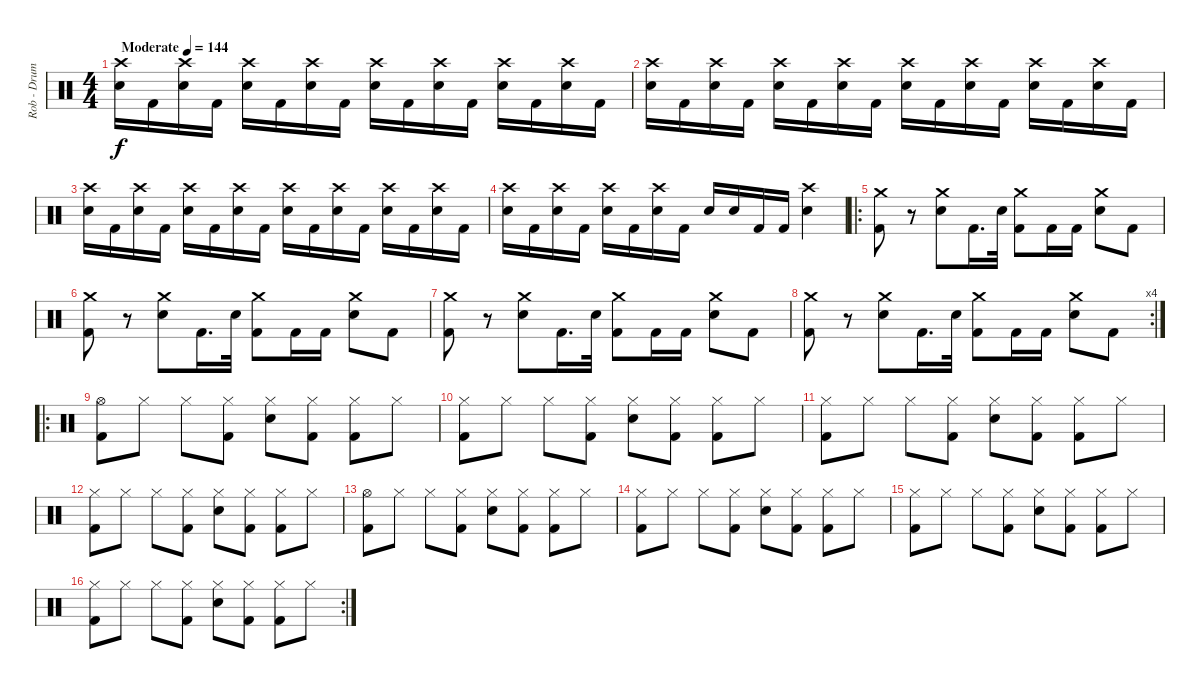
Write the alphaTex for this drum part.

\track ("Rob - Drums" "Rob - Drum") {instrument percussion}
\staff {score}
\articulation defaults
\ts (4 4)
\tempo (144 "Moderate")
\clef neutral
\ks c
("Crash high (hit)" "Electric Snare (hit)").16{dy f} "Kick (hit) 2".16 ("Crash high (hit)" "Electric Snare (hit)").16 "Kick (hit) 2".16 ("Crash high (hit)" "Electric Snare (hit)").16 "Kick (hit) 2".16 ("Crash high (hit)" "Electric Snare (hit)").16 "Kick (hit) 2".16 ("Crash high (hit)" "Electric Snare (hit)").16 "Kick (hit) 2".16 ("Crash high (hit)" "Electric Snare (hit)").16 "Kick (hit) 2".16 ("Crash high (hit)" "Electric Snare (hit)").16 "Kick (hit) 2".16 ("Crash high (hit)" "Electric Snare (hit)").16 "Kick (hit) 2".16 |
("Crash high (hit)" "Electric Snare (hit)").16 "Kick (hit) 2".16 ("Crash high (hit)" "Electric Snare (hit)").16 "Kick (hit) 2".16 ("Crash high (hit)" "Electric Snare (hit)").16 "Kick (hit) 2".16 ("Crash high (hit)" "Electric Snare (hit)").16 "Kick (hit) 2".16 ("Crash high (hit)" "Electric Snare (hit)").16 "Kick (hit) 2".16 ("Crash high (hit)" "Electric Snare (hit)").16 "Kick (hit) 2".16 ("Crash high (hit)" "Electric Snare (hit)").16 "Kick (hit) 2".16 ("Crash high (hit)" "Electric Snare (hit)").16 "Kick (hit) 2".16 |
("Crash high (hit)" "Electric Snare (hit)").16 "Kick (hit) 2".16 ("Crash high (hit)" "Electric Snare (hit)").16 "Kick (hit) 2".16 ("Crash high (hit)" "Electric Snare (hit)").16 "Kick (hit) 2".16 ("Crash high (hit)" "Electric Snare (hit)").16 "Kick (hit) 2".16 ("Crash high (hit)" "Electric Snare (hit)").16 "Kick (hit) 2".16 ("Crash high (hit)" "Electric Snare (hit)").16 "Kick (hit) 2".16 ("Crash high (hit)" "Electric Snare (hit)").16 "Kick (hit) 2".16 ("Crash high (hit)" "Electric Snare (hit)").16 "Kick (hit) 2".16 |
("Crash high (hit)" "Electric Snare (hit)").16 "Kick (hit) 2".16 ("Crash high (hit)" "Electric Snare (hit)").16 "Kick (hit) 2".16 ("Crash high (hit)" "Electric Snare (hit)").16 "Kick (hit) 2".16 ("Crash high (hit)" "Electric Snare (hit)").16 "Kick (hit) 2".16 "Electric Snare (hit)".16 "Electric Snare (hit)".16 "Kick (hit) 2".16 "Kick (hit) 2".16 ("Crash high (hit)" "Electric Snare (hit)").4 |
\ro
("Crash medium (hit)" "Kick (hit) 2").8 r.8 ("Crash medium (hit)" "Electric Snare (hit)").8 "Kick (hit) 2".16{d} "Electric Snare (hit)".32 ("Crash medium (hit)" "Kick (hit) 2").8 "Kick (hit) 2".16 "Kick (hit) 2".16 ("Crash medium (hit)" "Electric Snare (hit)").8 "Kick (hit) 2".8 |
("Crash medium (hit)" "Kick (hit) 2").8 r.8 ("Crash medium (hit)" "Electric Snare (hit)").8 "Kick (hit) 2".16{d} "Electric Snare (hit)".32 ("Crash medium (hit)" "Kick (hit) 2").8 "Kick (hit) 2".16 "Kick (hit) 2".16 ("Crash medium (hit)" "Electric Snare (hit)").8 "Kick (hit) 2".8 |
("Crash medium (hit)" "Kick (hit) 2").8 r.8 ("Crash medium (hit)" "Electric Snare (hit)").8 "Kick (hit) 2".16{d} "Electric Snare (hit)".32 ("Crash medium (hit)" "Kick (hit) 2").8 "Kick (hit) 2".16 "Kick (hit) 2".16 ("Crash medium (hit)" "Electric Snare (hit)").8 "Kick (hit) 2".8 |
\rc 4
("Crash medium (hit)" "Kick (hit) 2").8 r.8 ("Crash medium (hit)" "Electric Snare (hit)").8 "Kick (hit) 2".16{d} "Electric Snare (hit)".32 ("Crash medium (hit)" "Kick (hit) 2").8 "Kick (hit) 2".16 "Kick (hit) 2".16 ("Crash medium (hit)" "Electric Snare (hit)").8 "Kick (hit) 2".8 |
\ro
("Hi-Hat (open)" "Kick (hit) 2").8 "Hi-Hat (closed)".8 "Hi-Hat (closed)".8 ("Hi-Hat (closed)" "Kick (hit) 2").8 ("Hi-Hat (closed)" "Electric Snare (hit)").8 ("Hi-Hat (closed)" "Kick (hit) 2").8 ("Hi-Hat (closed)" "Kick (hit) 2").8 "Hi-Hat (closed)".8 |
("Hi-Hat (closed)" "Kick (hit) 2").8 "Hi-Hat (closed)".8 "Hi-Hat (closed)".8 ("Hi-Hat (closed)" "Kick (hit) 2").8 ("Hi-Hat (closed)" "Electric Snare (hit)").8 ("Hi-Hat (closed)" "Kick (hit) 2").8 ("Hi-Hat (closed)" "Kick (hit) 2").8 "Hi-Hat (closed)".8 |
("Hi-Hat (closed)" "Kick (hit) 2").8 "Hi-Hat (closed)".8 "Hi-Hat (closed)".8 ("Hi-Hat (closed)" "Kick (hit) 2").8 ("Hi-Hat (closed)" "Electric Snare (hit)").8 ("Hi-Hat (closed)" "Kick (hit) 2").8 ("Hi-Hat (closed)" "Kick (hit) 2").8 "Hi-Hat (closed)".8 |
("Hi-Hat (closed)" "Kick (hit) 2").8 "Hi-Hat (closed)".8 "Hi-Hat (closed)".8 ("Hi-Hat (closed)" "Kick (hit) 2").8 ("Hi-Hat (closed)" "Electric Snare (hit)").8 ("Hi-Hat (closed)" "Kick (hit) 2").8 ("Hi-Hat (closed)" "Kick (hit) 2").8 "Hi-Hat (closed)".8 |
("Hi-Hat (open)" "Kick (hit) 2").8 "Hi-Hat (closed)".8 "Hi-Hat (closed)".8 ("Hi-Hat (closed)" "Kick (hit) 2").8 ("Hi-Hat (closed)" "Electric Snare (hit)").8 ("Hi-Hat (closed)" "Kick (hit) 2").8 ("Hi-Hat (closed)" "Kick (hit) 2").8 "Hi-Hat (closed)".8 |
("Hi-Hat (closed)" "Kick (hit) 2").8 "Hi-Hat (closed)".8 "Hi-Hat (closed)".8 ("Hi-Hat (closed)" "Kick (hit) 2").8 ("Hi-Hat (closed)" "Electric Snare (hit)").8 ("Hi-Hat (closed)" "Kick (hit) 2").8 ("Hi-Hat (closed)" "Kick (hit) 2").8 "Hi-Hat (closed)".8 |
("Hi-Hat (closed)" "Kick (hit) 2").8 "Hi-Hat (closed)".8 "Hi-Hat (closed)".8 ("Hi-Hat (closed)" "Kick (hit) 2").8 ("Hi-Hat (closed)" "Electric Snare (hit)").8 ("Hi-Hat (closed)" "Kick (hit) 2").8 ("Hi-Hat (closed)" "Kick (hit) 2").8 "Hi-Hat (closed)".8 |
\rc 2
("Hi-Hat (closed)" "Kick (hit) 2").8 "Hi-Hat (closed)".8 "Hi-Hat (closed)".8 ("Hi-Hat (closed)" "Kick (hit) 2").8 ("Hi-Hat (closed)" "Electric Snare (hit)").8 ("Hi-Hat (closed)" "Kick (hit) 2").8 ("Hi-Hat (closed)" "Kick (hit) 2").8 "Hi-Hat (closed)".8
